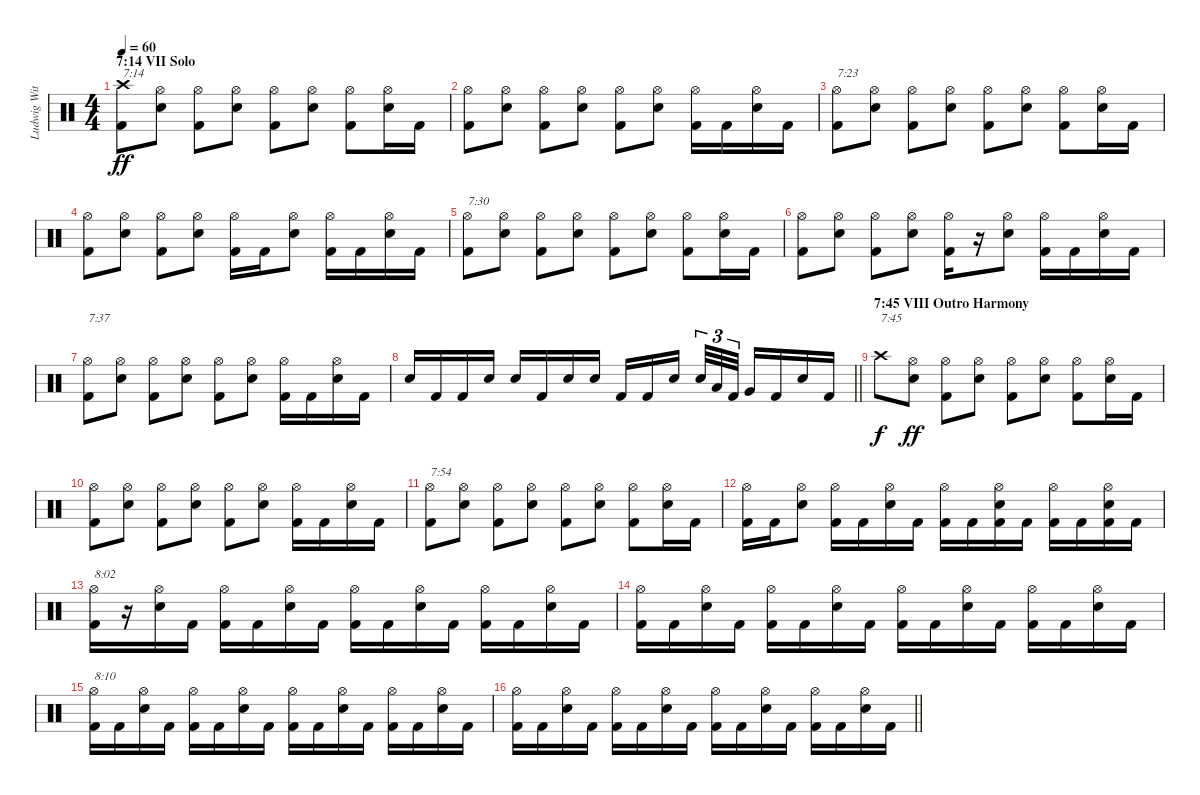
\track ("Ludwig Witt (Drums)" "Ludwig Wit") {instrument percussion}
\staff
\articulation defaults
\ts (4 4)
\section ("" "7:14 VII Solo")
\tempo 60
\clef neutral
\ks c
("Crash high (hit)" "Kick (hit) 2").8{txt "7:14" dy ff} ("Hi-Hat (open)" "Electric Snare (hit)").8 ("Hi-Hat (open)" "Kick (hit) 2").8 ("Hi-Hat (open)" "Electric Snare (hit)").8 ("Hi-Hat (open)" "Kick (hit) 2").8 ("Hi-Hat (open)" "Electric Snare (hit)").8 ("Hi-Hat (open)" "Kick (hit) 2").8 ("Hi-Hat (open)" "Electric Snare (hit)").16 "Kick (hit) 2".16 |
("Hi-Hat (open)" "Kick (hit) 2").8 ("Hi-Hat (open)" "Electric Snare (hit)").8 ("Hi-Hat (open)" "Kick (hit) 2").8 ("Hi-Hat (open)" "Electric Snare (hit)").8 ("Hi-Hat (open)" "Kick (hit) 2").8 ("Hi-Hat (open)" "Electric Snare (hit)").8 ("Hi-Hat (open)" "Kick (hit) 2").16 "Kick (hit) 2".16 ("Hi-Hat (open)" "Electric Snare (hit)").16 "Kick (hit) 2".16 |
("Hi-Hat (open)" "Kick (hit) 2").8{txt "7:23"} ("Hi-Hat (open)" "Electric Snare (hit)").8 ("Hi-Hat (open)" "Kick (hit) 2").8 ("Hi-Hat (open)" "Electric Snare (hit)").8 ("Hi-Hat (open)" "Kick (hit) 2").8 ("Hi-Hat (open)" "Electric Snare (hit)").8 ("Hi-Hat (open)" "Kick (hit) 2").8 ("Hi-Hat (open)" "Electric Snare (hit)").16 "Kick (hit) 2".16 |
("Hi-Hat (open)" "Kick (hit) 2").8 ("Hi-Hat (open)" "Electric Snare (hit)").8 ("Hi-Hat (open)" "Kick (hit) 2").8 ("Hi-Hat (open)" "Electric Snare (hit)").8 ("Hi-Hat (open)" "Kick (hit) 2").16 "Kick (hit) 2".16 ("Hi-Hat (open)" "Electric Snare (hit)").8 ("Hi-Hat (open)" "Kick (hit) 2").16 "Kick (hit) 2".16 ("Hi-Hat (open)" "Electric Snare (hit)").16 "Kick (hit) 2".16 |
("Hi-Hat (open)" "Kick (hit) 2").8{txt "7:30"} ("Hi-Hat (open)" "Electric Snare (hit)").8 ("Hi-Hat (open)" "Kick (hit) 2").8 ("Hi-Hat (open)" "Electric Snare (hit)").8 ("Hi-Hat (open)" "Kick (hit) 2").8 ("Hi-Hat (open)" "Electric Snare (hit)").8 ("Hi-Hat (open)" "Kick (hit) 2").8 ("Hi-Hat (open)" "Electric Snare (hit)").16 "Kick (hit) 2".16 |
("Hi-Hat (open)" "Kick (hit) 2").8 ("Hi-Hat (open)" "Electric Snare (hit)").8 ("Hi-Hat (open)" "Kick (hit) 2").8 ("Hi-Hat (open)" "Electric Snare (hit)").8 ("Hi-Hat (open)" "Kick (hit) 2").16 r.16 ("Hi-Hat (open)" "Electric Snare (hit)").8 ("Hi-Hat (open)" "Kick (hit) 2").16 "Kick (hit) 2".16 ("Hi-Hat (open)" "Electric Snare (hit)").16 "Kick (hit) 2".16 |
("Hi-Hat (open)" "Kick (hit) 2").8{txt "7:37"} ("Hi-Hat (open)" "Electric Snare (hit)").8 ("Hi-Hat (open)" "Kick (hit) 2").8 ("Hi-Hat (open)" "Electric Snare (hit)").8 ("Hi-Hat (open)" "Kick (hit) 2").8 ("Hi-Hat (open)" "Electric Snare (hit)").8 ("Hi-Hat (open)" "Kick (hit) 2").16 "Kick (hit) 2".16 ("Hi-Hat (open)" "Electric Snare (hit)").16 "Kick (hit) 2".16 |
\barLineRight lightlight "Electric Snare (hit)".16 "Kick (hit) 2".16 "Kick (hit) 2".16 "Electric Snare (hit)".16 "Electric Snare (hit)".16 "Kick (hit) 2".16 "Electric Snare (hit)".16 "Electric Snare (hit)".16 "Kick (hit) 2".16 "Kick (hit) 2".16 "Electric Snare (hit)".16{beam splitsecondary} "Electric Snare (hit)".32{tu (3 2)} "Low Tom (hit)".32{tu (3 2)} "Kick (hit) 2".32{tu (3 2)} "Very Low Tom (hit)".16 "Kick (hit) 2".16 "Electric Snare (hit)".16 "Kick (hit) 2".16
|
\section ("" "7:45 VIII Outro Harmony")
"Crash high (hit)".8{txt "7:45" dy f} ("Hi-Hat (open)" "Electric Snare (hit)").8{dy ff} ("Hi-Hat (open)" "Kick (hit) 2").8 ("Hi-Hat (open)" "Electric Snare (hit)").8 ("Hi-Hat (open)" "Kick (hit) 2").8 ("Hi-Hat (open)" "Electric Snare (hit)").8 ("Hi-Hat (open)" "Kick (hit) 2").8 ("Hi-Hat (open)" "Electric Snare (hit)").16 "Kick (hit) 2".16 |
("Hi-Hat (open)" "Kick (hit) 2").8 ("Hi-Hat (open)" "Electric Snare (hit)").8 ("Hi-Hat (open)" "Kick (hit) 2").8 ("Hi-Hat (open)" "Electric Snare (hit)").8 ("Hi-Hat (open)" "Kick (hit) 2").8 ("Hi-Hat (open)" "Electric Snare (hit)").8 ("Hi-Hat (open)" "Kick (hit) 2").16 "Kick (hit) 2".16 ("Hi-Hat (open)" "Electric Snare (hit)").16 "Kick (hit) 2".16 |
("Hi-Hat (open)" "Kick (hit) 2").8{txt "7:54"} ("Hi-Hat (open)" "Electric Snare (hit)").8 ("Hi-Hat (open)" "Kick (hit) 2").8 ("Hi-Hat (open)" "Electric Snare (hit)").8 ("Hi-Hat (open)" "Kick (hit) 2").8 ("Hi-Hat (open)" "Electric Snare (hit)").8 ("Hi-Hat (open)" "Kick (hit) 2").8 ("Hi-Hat (open)" "Electric Snare (hit)").16 "Kick (hit) 2".16 |
("Hi-Hat (open)" "Kick (hit) 2").16 "Kick (hit) 2".16 ("Hi-Hat (open)" "Electric Snare (hit)").8 ("Hi-Hat (open)" "Kick (hit) 2").16 "Kick (hit) 2".16 ("Hi-Hat (open)" "Electric Snare (hit)").16 "Kick (hit) 2".16 ("Hi-Hat (open)" "Kick (hit) 2").16 "Kick (hit) 2".16 ("Hi-Hat (open)" "Electric Snare (hit)" "Kick (hit) 2").16 "Kick (hit) 2".16 ("Hi-Hat (open)" "Kick (hit) 2").16 "Kick (hit) 2".16 ("Hi-Hat (open)" "Electric Snare (hit)" "Kick (hit) 2").16 "Kick (hit) 2".16 |
("Hi-Hat (open)" "Kick (hit) 2").16{txt "8:02"} r.16 ("Hi-Hat (open)" "Electric Snare (hit)").16 "Kick (hit) 2".16 ("Hi-Hat (open)" "Kick (hit) 2").16 "Kick (hit) 2".16 ("Hi-Hat (open)" "Electric Snare (hit)").16 "Kick (hit) 2".16 ("Hi-Hat (open)" "Kick (hit) 2").16 "Kick (hit) 2".16 ("Hi-Hat (open)" "Electric Snare (hit)").16 "Kick (hit) 2".16 ("Hi-Hat (open)" "Kick (hit) 2").16 "Kick (hit) 2".16 ("Hi-Hat (open)" "Electric Snare (hit)").16 "Kick (hit) 2".16 |
("Hi-Hat (open)" "Kick (hit) 2").16 "Kick (hit) 2".16 ("Hi-Hat (open)" "Electric Snare (hit)").16 "Kick (hit) 2".16 ("Hi-Hat (open)" "Kick (hit) 2").16 "Kick (hit) 2".16 ("Hi-Hat (open)" "Electric Snare (hit)").16 "Kick (hit) 2".16 ("Hi-Hat (open)" "Kick (hit) 2").16 "Kick (hit) 2".16 ("Hi-Hat (open)" "Electric Snare (hit)").16 "Kick (hit) 2".16 ("Hi-Hat (open)" "Kick (hit) 2").16 "Kick (hit) 2".16 ("Hi-Hat (open)" "Electric Snare (hit)").16 "Kick (hit) 2".16 |
("Hi-Hat (open)" "Kick (hit) 2").16{txt "8:10"} "Kick (hit) 2".16 ("Hi-Hat (open)" "Electric Snare (hit)").16 "Kick (hit) 2".16 ("Hi-Hat (open)" "Kick (hit) 2").16 "Kick (hit) 2".16 ("Hi-Hat (open)" "Electric Snare (hit)").16 "Kick (hit) 2".16 ("Hi-Hat (open)" "Kick (hit) 2").16 "Kick (hit) 2".16 ("Hi-Hat (open)" "Electric Snare (hit)").16 "Kick (hit) 2".16 ("Hi-Hat (open)" "Kick (hit) 2").16 "Kick (hit) 2".16 ("Hi-Hat (open)" "Electric Snare (hit)").16 "Kick (hit) 2".16 |
\barLineRight lightlight
("Hi-Hat (open)" "Kick (hit) 2").16 "Kick (hit) 2".16 ("Hi-Hat (open)" "Electric Snare (hit)").16 "Kick (hit) 2".16 ("Hi-Hat (open)" "Kick (hit) 2").16 "Kick (hit) 2".16 ("Hi-Hat (open)" "Electric Snare (hit)").16 "Kick (hit) 2".16 ("Hi-Hat (open)" "Kick (hit) 2").16 "Kick (hit) 2".16 ("Hi-Hat (open)" "Electric Snare (hit)").16 "Kick (hit) 2".16 ("Hi-Hat (open)" "Kick (hit) 2").16 "Kick (hit) 2".16 ("Hi-Hat (open)" "Electric Snare (hit)").16 "Kick (hit) 2".16
